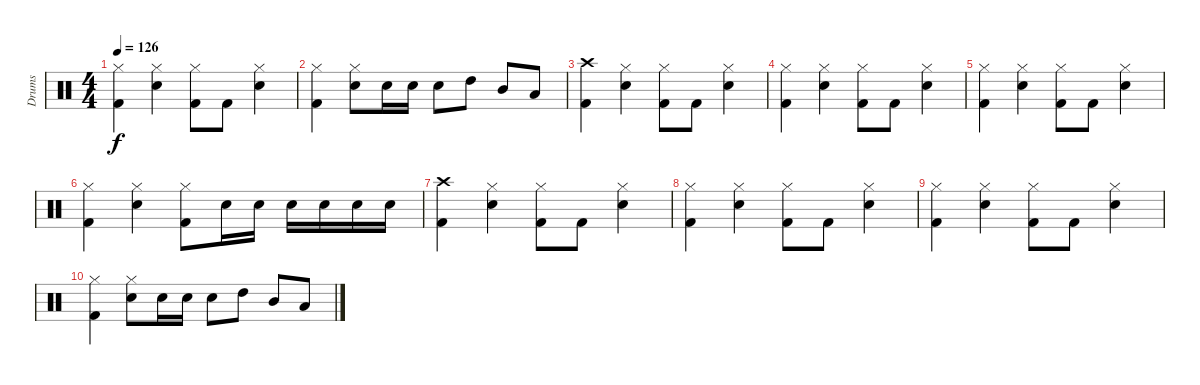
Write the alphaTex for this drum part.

\track ("Drums" "Drums") {instrument percussion}
\staff {score}
\articulation defaults
\ts (4 4)
\tempo 126
\clef neutral
\ks c
("Hi-Hat (closed)" "Kick (hit) 2").4{dy f} ("Hi-Hat (closed)" "Snare (hit) 2").4 ("Hi-Hat (closed)" "Kick (hit) 2").8 "Kick (hit) 2".8 ("Hi-Hat (closed)" "Snare (hit) 2").4 |
("Hi-Hat (closed)" "Kick (hit) 2").4 ("Hi-Hat (closed)" "Snare (hit) 2").8 "Snare (hit) 2".16 "Snare (hit) 2".16 "Snare (hit) 2".8 "High Tom (hit)".8 "Mid Tom (hit)".8 "Low Tom (hit)".8 |
("Crash high (hit)" "Kick (hit) 2").4 ("Hi-Hat (closed)" "Snare (hit) 2").4 ("Hi-Hat (closed)" "Kick (hit) 2").8 "Kick (hit) 2".8 ("Hi-Hat (closed)" "Snare (hit) 2").4 |
("Hi-Hat (closed)" "Kick (hit) 2").4 ("Hi-Hat (closed)" "Snare (hit) 2").4 ("Hi-Hat (closed)" "Kick (hit) 2").8 "Kick (hit) 2".8 ("Hi-Hat (closed)" "Snare (hit) 2").4 |
("Hi-Hat (closed)" "Kick (hit) 2").4 ("Hi-Hat (closed)" "Snare (hit) 2").4 ("Hi-Hat (closed)" "Kick (hit) 2").8 "Kick (hit) 2".8 ("Hi-Hat (closed)" "Snare (hit) 2").4 |
("Hi-Hat (closed)" "Kick (hit) 2").4 ("Hi-Hat (closed)" "Snare (hit) 2").4 ("Hi-Hat (closed)" "Kick (hit) 2").8 "Snare (hit) 2".16 "Snare (hit) 2".16 "Snare (hit) 2".16 "Snare (hit) 2".16 "Snare (hit) 2".16 "Snare (hit) 2".16 |
("Crash high (hit)" "Kick (hit) 2").4 ("Hi-Hat (closed)" "Snare (hit) 2").4 ("Hi-Hat (closed)" "Kick (hit) 2").8 "Kick (hit) 2".8 ("Hi-Hat (closed)" "Snare (hit) 2").4 |
("Hi-Hat (closed)" "Kick (hit) 2").4 ("Hi-Hat (closed)" "Snare (hit) 2").4 ("Hi-Hat (closed)" "Kick (hit) 2").8 "Kick (hit) 2".8 ("Hi-Hat (closed)" "Snare (hit) 2").4 |
("Hi-Hat (closed)" "Kick (hit) 2").4 ("Hi-Hat (closed)" "Snare (hit) 2").4 ("Hi-Hat (closed)" "Kick (hit) 2").8 "Kick (hit) 2".8 ("Hi-Hat (closed)" "Snare (hit) 2").4 |
("Hi-Hat (closed)" "Kick (hit) 2").4 ("Hi-Hat (closed)" "Snare (hit) 2").8 "Snare (hit) 2".16 "Snare (hit) 2".16 "Snare (hit) 2".8 "High Tom (hit)".8 "Mid Tom (hit)".8 "Low Tom (hit)".8
